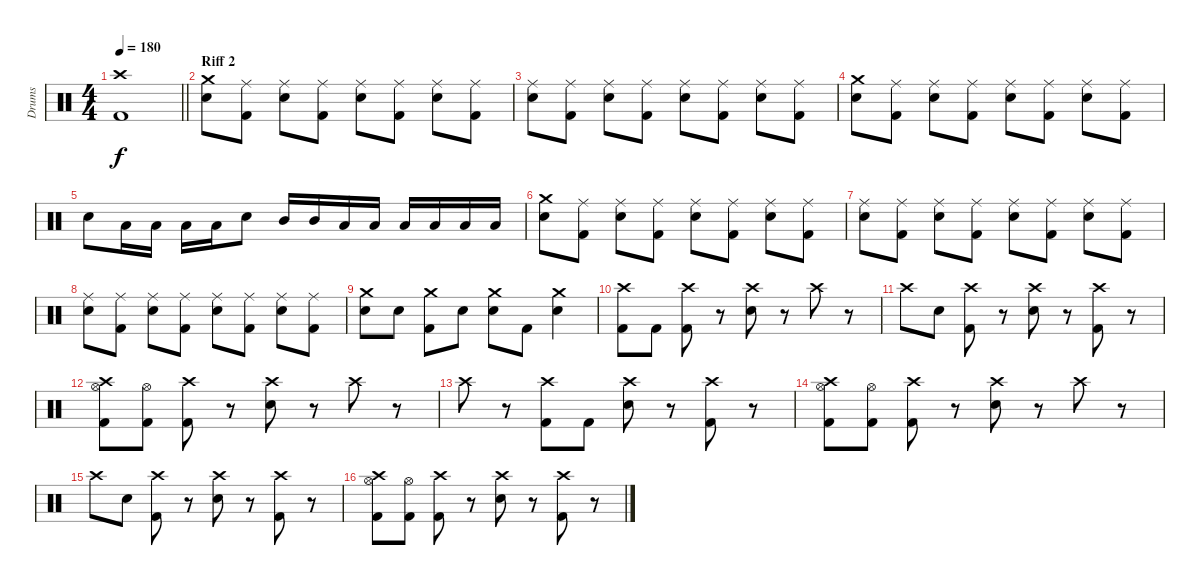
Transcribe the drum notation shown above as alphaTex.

\track ("Drums" "Drums") {instrument percussion}
\staff {score}
\articulation defaults
\ts (4 4)
\tempo 180
\clef neutral
\barLineRight lightlight
\ks c
("Crash high (hit)" "Kick (hit) 2").1{dy f} |
\section ("" "Riff 2")
("Crash medium (hit)" "Snare (hit) 2").8 ("Ride (middle)" "Kick (hit) 2").8 ("Ride (middle)" "Snare (hit) 2").8 ("Ride (middle)" "Kick (hit) 2").8 ("Ride (middle)" "Snare (hit) 2").8 ("Ride (middle)" "Kick (hit) 2").8 ("Ride (middle)" "Snare (hit) 2").8 ("Ride (middle)" "Kick (hit) 2").8 |
("Ride (middle)" "Snare (hit) 2").8 ("Ride (middle)" "Kick (hit) 2").8 ("Ride (middle)" "Snare (hit) 2").8 ("Ride (middle)" "Kick (hit) 2").8 ("Ride (middle)" "Snare (hit) 2").8 ("Ride (middle)" "Kick (hit) 2").8 ("Ride (middle)" "Snare (hit) 2").8 ("Ride (middle)" "Kick (hit) 2").8 |
("Crash medium (hit)" "Snare (hit) 2").8 ("Ride (middle)" "Kick (hit) 2").8 ("Ride (middle)" "Snare (hit) 2").8 ("Ride (middle)" "Kick (hit) 2").8 ("Ride (middle)" "Snare (hit) 2").8 ("Ride (middle)" "Kick (hit) 2").8 ("Ride (middle)" "Snare (hit) 2").8 ("Ride (middle)" "Kick (hit) 2").8 |
"Snare (hit) 2".8 "Low Tom (hit)".16 "Low Tom (hit)".16 "Low Floor Tom (hit)".16 "Low Floor Tom (hit)".16 "Snare (hit) 2".8 "Mid Tom (hit)".16 "Mid Tom (hit)".16 "Low Tom (hit)".16 "Low Tom (hit)".16 "Low Floor Tom (hit)".16 "Low Floor Tom (hit)".16 "Low Floor Tom (hit)".16 "Low Floor Tom (hit)".16 |
("Crash medium (hit)" "Snare (hit) 2").8 ("Ride (middle)" "Kick (hit) 2").8 ("Ride (middle)" "Snare (hit) 2").8 ("Ride (middle)" "Kick (hit) 2").8 ("Ride (middle)" "Snare (hit) 2").8 ("Ride (middle)" "Kick (hit) 2").8 ("Ride (middle)" "Snare (hit) 2").8 ("Ride (middle)" "Kick (hit) 2").8 |
("Ride (middle)" "Snare (hit) 2").8 ("Ride (middle)" "Kick (hit) 2").8 ("Ride (middle)" "Snare (hit) 2").8 ("Ride (middle)" "Kick (hit) 2").8 ("Ride (middle)" "Snare (hit) 2").8 ("Ride (middle)" "Kick (hit) 2").8 ("Ride (middle)" "Snare (hit) 2").8 ("Ride (middle)" "Kick (hit) 2").8 |
("Ride (middle)" "Snare (hit) 2").8 ("Ride (middle)" "Kick (hit) 2").8 ("Ride (middle)" "Snare (hit) 2").8 ("Ride (middle)" "Kick (hit) 2").8 ("Ride (middle)" "Snare (hit) 2").8 ("Ride (middle)" "Kick (hit) 2").8 ("Ride (middle)" "Snare (hit) 2").8 ("Ride (middle)" "Kick (hit) 2").8 |
("Crash medium (hit)" "Snare (hit) 2").8 "Snare (hit) 2".8 ("Crash medium (hit)" "Kick (hit) 2").8 "Snare (hit) 2".8 ("Crash medium (hit)" "Snare (hit) 2").8 "Kick (hit) 2".8 ("Crash medium (hit)" "Snare (hit) 2").4 |
("Crash high (hit)" "Kick (hit) 2").8 "Kick (hit) 2".8 ("Crash high (hit)" "Kick (hit) 2").8 r.8 ("Crash high (hit)" "Snare (hit) 2").8 r.8 "Crash high (hit)".8 r.8 |
"Crash high (hit)".8 "Snare (hit) 2".8 ("Crash high (hit)" "Kick (hit) 2").8 r.8 ("Crash high (hit)" "Snare (hit) 2").8 r.8 ("Crash high (hit)" "Kick (hit) 2").8 r.8 |
("Crash high (hit)" "Hi-Hat (open)" "Kick (hit) 2").8 ("Hi-Hat (open)" "Kick (hit) 2").8 ("Crash high (hit)" "Kick (hit) 2").8 r.8 ("Crash high (hit)" "Snare (hit) 2").8 r.8 "Crash high (hit)".8 r.8 |
"Crash high (hit)".8 r.8 ("Crash high (hit)" "Kick (hit) 2").8 "Kick (hit) 2".8 ("Crash high (hit)" "Snare (hit) 2").8 r.8 ("Crash high (hit)" "Kick (hit) 2").8 r.8 |
("Crash high (hit)" "Hi-Hat (open)" "Kick (hit) 2").8 ("Hi-Hat (open)" "Kick (hit) 2").8 ("Crash high (hit)" "Kick (hit) 2").8 r.8 ("Crash high (hit)" "Snare (hit) 2").8 r.8 "Crash high (hit)".8 r.8 |
"Crash high (hit)".8 "Snare (hit) 2".8 ("Crash high (hit)" "Kick (hit) 2").8 r.8 ("Crash high (hit)" "Snare (hit) 2").8 r.8 ("Crash high (hit)" "Kick (hit) 2").8 r.8 |
("Crash high (hit)" "Hi-Hat (open)" "Kick (hit) 2").8 ("Hi-Hat (open)" "Kick (hit) 2").8 ("Crash high (hit)" "Kick (hit) 2").8 r.8 ("Crash high (hit)" "Snare (hit) 2").8 r.8 ("Crash high (hit)" "Kick (hit) 2").8 r.8
